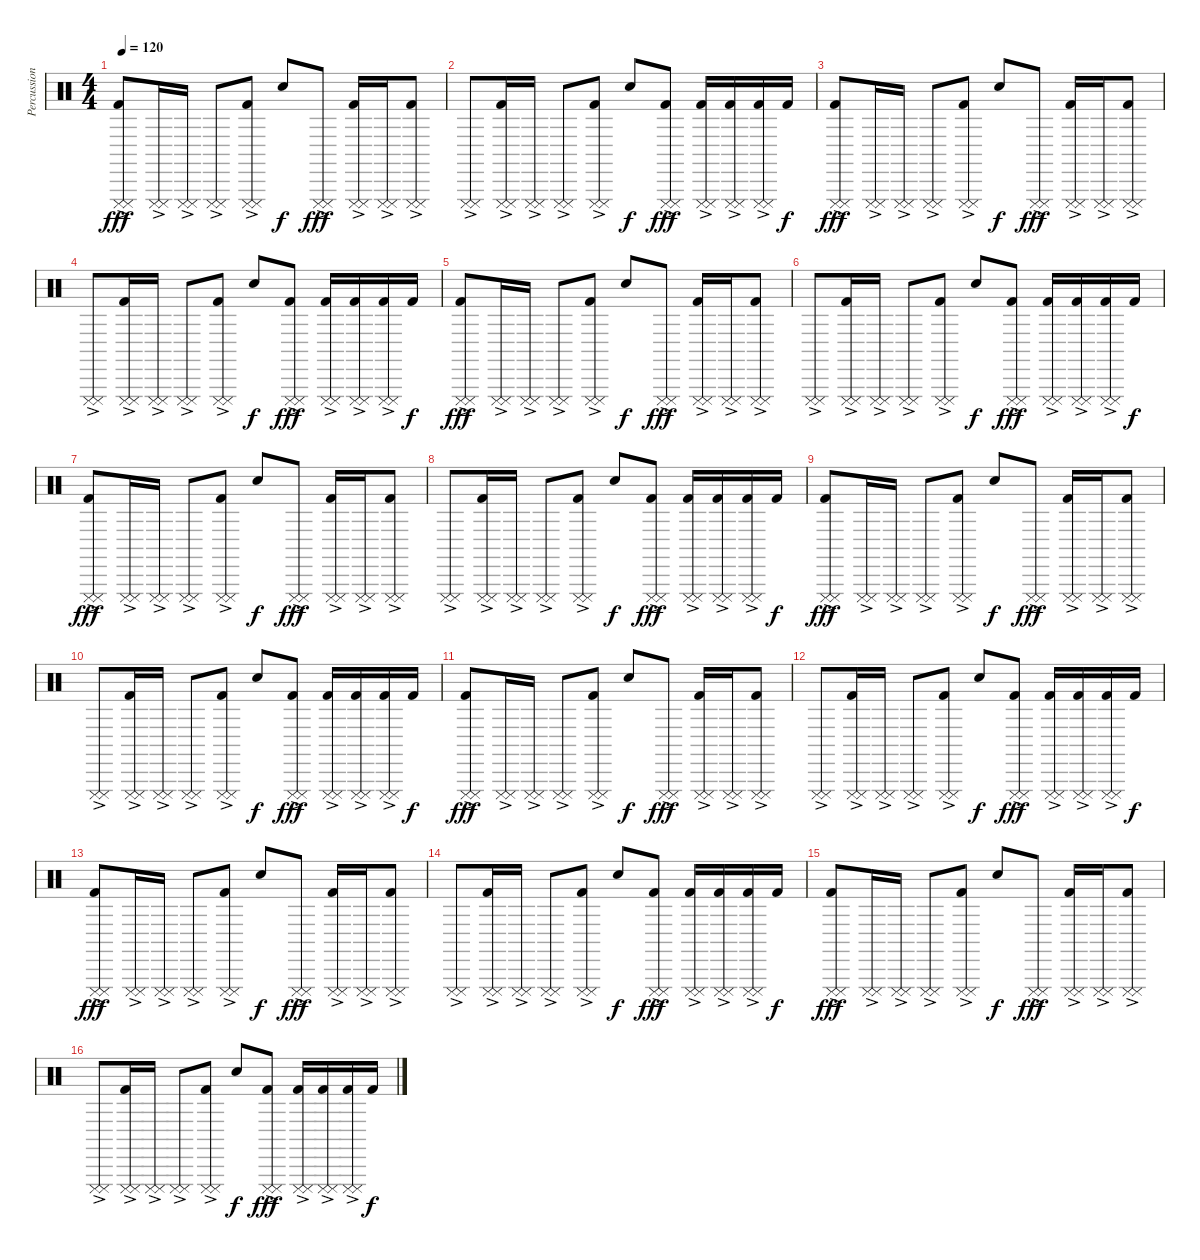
\track ("Percussion" "Percussion") {instrument percussion}
\staff {score}
\articulation defaults
\ts (4 4)
\tempo 120
\clef neutral
\ks c
("Cuica (mute)"{ac} "Cuica (mute)"{ac} "Kick (hit) 2").8{dy fff} ("Cuica (mute)"{ac} "Cuica (mute)"{ac}).16 ("Cuica (mute)"{ac} "Cuica (mute)"{ac}).16 ("Cuica (mute)"{ac} "Cuica (mute)"{ac}).8 ("Cuica (mute)"{ac} "Cuica (mute)"{ac} "Kick (hit) 2").8 "Electric Snare (hit)".8{dy f} ("Cuica (mute)"{ac} "Cuica (mute)"{ac}).8{dy fff} ("Cuica (mute)"{ac} "Cuica (mute)"{ac} "Kick (hit) 2").16 ("Cuica (mute)"{ac} "Cuica (mute)"{ac}).16 ("Cuica (mute)"{ac} "Cuica (mute)"{ac} "Kick (hit) 2").8 |
("Cuica (mute)"{ac} "Cuica (mute)"{ac}).8 ("Cuica (mute)"{ac} "Cuica (mute)"{ac} "Kick (hit) 2").16 ("Cuica (mute)"{ac} "Cuica (mute)"{ac}).16 ("Cuica (mute)"{ac} "Cuica (mute)"{ac}).8 ("Cuica (mute)"{ac} "Cuica (mute)"{ac} "Kick (hit) 2").8 "Electric Snare (hit)".8{dy f} ("Cuica (mute)"{ac} "Cuica (mute)"{ac} "Kick (hit) 2").8{dy fff} ("Cuica (mute)"{ac} "Cuica (mute)"{ac} "Kick (hit) 2").16 ("Cuica (mute)"{ac} "Cuica (mute)"{ac} "Kick (hit) 2").16 ("Cuica (mute)"{ac} "Cuica (mute)"{ac} "Kick (hit) 2").16 "Kick (hit) 2".16{dy f} |
("Cuica (mute)"{ac} "Cuica (mute)"{ac} "Kick (hit) 2").8{dy fff} ("Cuica (mute)"{ac} "Cuica (mute)"{ac}).16 ("Cuica (mute)"{ac} "Cuica (mute)"{ac}).16 ("Cuica (mute)"{ac} "Cuica (mute)"{ac}).8 ("Cuica (mute)"{ac} "Cuica (mute)"{ac} "Kick (hit) 2").8 "Electric Snare (hit)".8{dy f} ("Cuica (mute)"{ac} "Cuica (mute)"{ac}).8{dy fff} ("Cuica (mute)"{ac} "Cuica (mute)"{ac} "Kick (hit) 2").16 ("Cuica (mute)"{ac} "Cuica (mute)"{ac}).16 ("Cuica (mute)"{ac} "Cuica (mute)"{ac} "Kick (hit) 2").8 |
("Cuica (mute)"{ac} "Cuica (mute)"{ac}).8 ("Cuica (mute)"{ac} "Cuica (mute)"{ac} "Kick (hit) 2").16 ("Cuica (mute)"{ac} "Cuica (mute)"{ac}).16 ("Cuica (mute)"{ac} "Cuica (mute)"{ac}).8 ("Cuica (mute)"{ac} "Cuica (mute)"{ac} "Kick (hit) 2").8 "Electric Snare (hit)".8{dy f} ("Cuica (mute)"{ac} "Cuica (mute)"{ac} "Kick (hit) 2").8{dy fff} ("Cuica (mute)"{ac} "Cuica (mute)"{ac} "Kick (hit) 2").16 ("Cuica (mute)"{ac} "Cuica (mute)"{ac} "Kick (hit) 2").16 ("Cuica (mute)"{ac} "Cuica (mute)"{ac} "Kick (hit) 2").16 "Kick (hit) 2".16{dy f} |
("Cuica (mute)"{ac} "Cuica (mute)"{ac} "Kick (hit) 2").8{dy fff} ("Cuica (mute)"{ac} "Cuica (mute)"{ac}).16 ("Cuica (mute)"{ac} "Cuica (mute)"{ac}).16 ("Cuica (mute)"{ac} "Cuica (mute)"{ac}).8 ("Cuica (mute)"{ac} "Cuica (mute)"{ac} "Kick (hit) 2").8 "Electric Snare (hit)".8{dy f} ("Cuica (mute)"{ac} "Cuica (mute)"{ac}).8{dy fff} ("Cuica (mute)"{ac} "Cuica (mute)"{ac} "Kick (hit) 2").16 ("Cuica (mute)"{ac} "Cuica (mute)"{ac}).16 ("Cuica (mute)"{ac} "Cuica (mute)"{ac} "Kick (hit) 2").8 |
("Cuica (mute)"{ac} "Cuica (mute)"{ac}).8 ("Cuica (mute)"{ac} "Cuica (mute)"{ac} "Kick (hit) 2").16 ("Cuica (mute)"{ac} "Cuica (mute)"{ac}).16 ("Cuica (mute)"{ac} "Cuica (mute)"{ac}).8 ("Cuica (mute)"{ac} "Cuica (mute)"{ac} "Kick (hit) 2").8 "Electric Snare (hit)".8{dy f} ("Cuica (mute)"{ac} "Cuica (mute)"{ac} "Kick (hit) 2").8{dy fff} ("Cuica (mute)"{ac} "Cuica (mute)"{ac} "Kick (hit) 2").16 ("Cuica (mute)"{ac} "Cuica (mute)"{ac} "Kick (hit) 2").16 ("Cuica (mute)"{ac} "Cuica (mute)"{ac} "Kick (hit) 2").16 "Kick (hit) 2".16{dy f} |
("Cuica (mute)"{ac} "Cuica (mute)"{ac} "Kick (hit) 2").8{dy fff} ("Cuica (mute)"{ac} "Cuica (mute)"{ac}).16 ("Cuica (mute)"{ac} "Cuica (mute)"{ac}).16 ("Cuica (mute)"{ac} "Cuica (mute)"{ac}).8 ("Cuica (mute)"{ac} "Cuica (mute)"{ac} "Kick (hit) 2").8 "Electric Snare (hit)".8{dy f} ("Cuica (mute)"{ac} "Cuica (mute)"{ac}).8{dy fff} ("Cuica (mute)"{ac} "Cuica (mute)"{ac} "Kick (hit) 2").16 ("Cuica (mute)"{ac} "Cuica (mute)"{ac}).16 ("Cuica (mute)"{ac} "Cuica (mute)"{ac} "Kick (hit) 2").8 |
("Cuica (mute)"{ac} "Cuica (mute)"{ac}).8 ("Cuica (mute)"{ac} "Cuica (mute)"{ac} "Kick (hit) 2").16 ("Cuica (mute)"{ac} "Cuica (mute)"{ac}).16 ("Cuica (mute)"{ac} "Cuica (mute)"{ac}).8 ("Cuica (mute)"{ac} "Cuica (mute)"{ac} "Kick (hit) 2").8 "Electric Snare (hit)".8{dy f} ("Cuica (mute)"{ac} "Cuica (mute)"{ac} "Kick (hit) 2").8{dy fff} ("Cuica (mute)"{ac} "Cuica (mute)"{ac} "Kick (hit) 2").16 ("Cuica (mute)"{ac} "Cuica (mute)"{ac} "Kick (hit) 2").16 ("Cuica (mute)"{ac} "Cuica (mute)"{ac} "Kick (hit) 2").16 "Kick (hit) 2".16{dy f} |
("Cuica (mute)"{ac} "Cuica (mute)"{ac} "Kick (hit) 2").8{dy fff} ("Cuica (mute)"{ac} "Cuica (mute)"{ac}).16 ("Cuica (mute)"{ac} "Cuica (mute)"{ac}).16 ("Cuica (mute)"{ac} "Cuica (mute)"{ac}).8 ("Cuica (mute)"{ac} "Cuica (mute)"{ac} "Kick (hit) 2").8 "Electric Snare (hit)".8{dy f} ("Cuica (mute)"{ac} "Cuica (mute)"{ac}).8{dy fff} ("Cuica (mute)"{ac} "Cuica (mute)"{ac} "Kick (hit) 2").16 ("Cuica (mute)"{ac} "Cuica (mute)"{ac}).16 ("Cuica (mute)"{ac} "Cuica (mute)"{ac} "Kick (hit) 2").8 |
("Cuica (mute)"{ac} "Cuica (mute)"{ac}).8 ("Cuica (mute)"{ac} "Cuica (mute)"{ac} "Kick (hit) 2").16 ("Cuica (mute)"{ac} "Cuica (mute)"{ac}).16 ("Cuica (mute)"{ac} "Cuica (mute)"{ac}).8 ("Cuica (mute)"{ac} "Cuica (mute)"{ac} "Kick (hit) 2").8 "Electric Snare (hit)".8{dy f} ("Cuica (mute)"{ac} "Cuica (mute)"{ac} "Kick (hit) 2").8{dy fff} ("Cuica (mute)"{ac} "Cuica (mute)"{ac} "Kick (hit) 2").16 ("Cuica (mute)"{ac} "Cuica (mute)"{ac} "Kick (hit) 2").16 ("Cuica (mute)"{ac} "Cuica (mute)"{ac} "Kick (hit) 2").16 "Kick (hit) 2".16{dy f} |
("Cuica (mute)"{ac} "Cuica (mute)"{ac} "Kick (hit) 2").8{dy fff} ("Cuica (mute)"{ac} "Cuica (mute)"{ac}).16 ("Cuica (mute)"{ac} "Cuica (mute)"{ac}).16 ("Cuica (mute)"{ac} "Cuica (mute)"{ac}).8 ("Cuica (mute)"{ac} "Cuica (mute)"{ac} "Kick (hit) 2").8 "Electric Snare (hit)".8{dy f} ("Cuica (mute)"{ac} "Cuica (mute)"{ac}).8{dy fff} ("Cuica (mute)"{ac} "Cuica (mute)"{ac} "Kick (hit) 2").16 ("Cuica (mute)"{ac} "Cuica (mute)"{ac}).16 ("Cuica (mute)"{ac} "Cuica (mute)"{ac} "Kick (hit) 2").8 |
("Cuica (mute)"{ac} "Cuica (mute)"{ac}).8 ("Cuica (mute)"{ac} "Cuica (mute)"{ac} "Kick (hit) 2").16 ("Cuica (mute)"{ac} "Cuica (mute)"{ac}).16 ("Cuica (mute)"{ac} "Cuica (mute)"{ac}).8 ("Cuica (mute)"{ac} "Cuica (mute)"{ac} "Kick (hit) 2").8 "Electric Snare (hit)".8{dy f} ("Cuica (mute)"{ac} "Cuica (mute)"{ac} "Kick (hit) 2").8{dy fff} ("Cuica (mute)"{ac} "Cuica (mute)"{ac} "Kick (hit) 2").16 ("Cuica (mute)"{ac} "Cuica (mute)"{ac} "Kick (hit) 2").16 ("Cuica (mute)"{ac} "Cuica (mute)"{ac} "Kick (hit) 2").16 "Kick (hit) 2".16{dy f} |
("Cuica (mute)"{ac} "Cuica (mute)"{ac} "Kick (hit) 2").8{dy fff} ("Cuica (mute)"{ac} "Cuica (mute)"{ac}).16 ("Cuica (mute)"{ac} "Cuica (mute)"{ac}).16 ("Cuica (mute)"{ac} "Cuica (mute)"{ac}).8 ("Cuica (mute)"{ac} "Cuica (mute)"{ac} "Kick (hit) 2").8 "Electric Snare (hit)".8{dy f} ("Cuica (mute)"{ac} "Cuica (mute)"{ac}).8{dy fff} ("Cuica (mute)"{ac} "Cuica (mute)"{ac} "Kick (hit) 2").16 ("Cuica (mute)"{ac} "Cuica (mute)"{ac}).16 ("Cuica (mute)"{ac} "Cuica (mute)"{ac} "Kick (hit) 2").8 |
("Cuica (mute)"{ac} "Cuica (mute)"{ac}).8 ("Cuica (mute)"{ac} "Cuica (mute)"{ac} "Kick (hit) 2").16 ("Cuica (mute)"{ac} "Cuica (mute)"{ac}).16 ("Cuica (mute)"{ac} "Cuica (mute)"{ac}).8 ("Cuica (mute)"{ac} "Cuica (mute)"{ac} "Kick (hit) 2").8 "Electric Snare (hit)".8{dy f} ("Cuica (mute)"{ac} "Cuica (mute)"{ac} "Kick (hit) 2").8{dy fff} ("Cuica (mute)"{ac} "Cuica (mute)"{ac} "Kick (hit) 2").16 ("Cuica (mute)"{ac} "Cuica (mute)"{ac} "Kick (hit) 2").16 ("Cuica (mute)"{ac} "Cuica (mute)"{ac} "Kick (hit) 2").16 "Kick (hit) 2".16{dy f} |
("Cuica (mute)"{ac} "Cuica (mute)"{ac} "Kick (hit) 2").8{dy fff} ("Cuica (mute)"{ac} "Cuica (mute)"{ac}).16 ("Cuica (mute)"{ac} "Cuica (mute)"{ac}).16 ("Cuica (mute)"{ac} "Cuica (mute)"{ac}).8 ("Cuica (mute)"{ac} "Cuica (mute)"{ac} "Kick (hit) 2").8 "Electric Snare (hit)".8{dy f} ("Cuica (mute)"{ac} "Cuica (mute)"{ac}).8{dy fff} ("Cuica (mute)"{ac} "Cuica (mute)"{ac} "Kick (hit) 2").16 ("Cuica (mute)"{ac} "Cuica (mute)"{ac}).16 ("Cuica (mute)"{ac} "Cuica (mute)"{ac} "Kick (hit) 2").8 |
("Cuica (mute)"{ac} "Cuica (mute)"{ac}).8 ("Cuica (mute)"{ac} "Cuica (mute)"{ac} "Kick (hit) 2").16 ("Cuica (mute)"{ac} "Cuica (mute)"{ac}).16 ("Cuica (mute)"{ac} "Cuica (mute)"{ac}).8 ("Cuica (mute)"{ac} "Cuica (mute)"{ac} "Kick (hit) 2").8 "Electric Snare (hit)".8{dy f} ("Cuica (mute)"{ac} "Cuica (mute)"{ac} "Kick (hit) 2").8{dy fff} ("Cuica (mute)"{ac} "Cuica (mute)"{ac} "Kick (hit) 2").16 ("Cuica (mute)"{ac} "Cuica (mute)"{ac} "Kick (hit) 2").16 ("Cuica (mute)"{ac} "Cuica (mute)"{ac} "Kick (hit) 2").16 "Kick (hit) 2".16{dy f}
